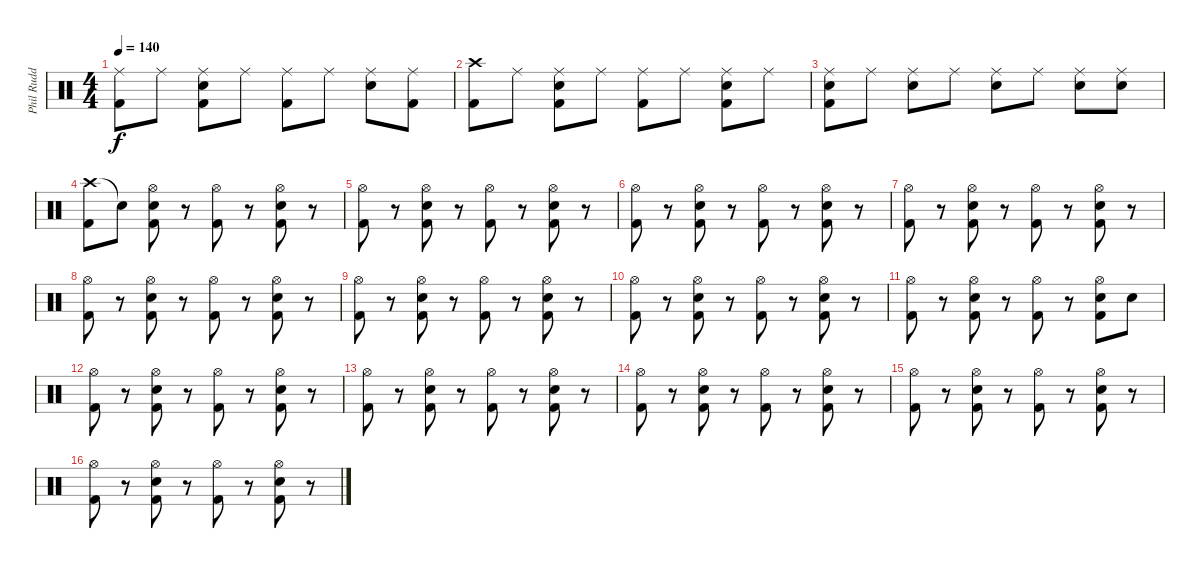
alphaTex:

\track ("Phil Rudd" "Phil Rudd") {instrument percussion}
\staff {score}
\articulation defaults
\ts (4 4)
\tempo 140
\clef neutral
\ks c
("Ride (middle)" "Kick (hit) 2").8{dy f} "Ride (middle)".8 ("Ride (middle)" "Electric Snare (hit)" "Kick (hit) 2").8 "Ride (middle)".8 ("Ride (middle)" "Kick (hit) 2").8 "Ride (middle)".8 ("Ride (middle)" "Electric Snare (hit)").8 ("Ride (middle)" "Kick (hit) 2").8 |
("Crash high (hit)" "Kick (hit) 2").8 "Ride (middle)".8 ("Ride (middle)" "Electric Snare (hit)" "Kick (hit) 2").8 "Ride (middle)".8 ("Ride (middle)" "Kick (hit) 2").8 "Ride (middle)".8 ("Ride (middle)" "Electric Snare (hit)" "Kick (hit) 2").8 "Ride (middle)".8 |
("Ride (middle)" "Electric Snare (hit)" "Kick (hit) 2").8 "Ride (middle)".8 ("Ride (middle)" "Electric Snare (hit)").8 "Ride (middle)".8 ("Ride (middle)" "Electric Snare (hit)").8 "Ride (middle)".8 ("Ride (middle)" "Electric Snare (hit)").8 ("Ride (middle)" "Electric Snare (hit)").8 |
("Crash high (hit)" "Kick (hit) 2").8 "Snare (hit)"{t}.8 ("Hi-Hat (open)" "Electric Snare (hit)" "Kick (hit) 2").8 r.8 ("Hi-Hat (open)" "Kick (hit) 2").8 r.8 ("Hi-Hat (open)" "Electric Snare (hit)" "Kick (hit) 2").8 r.8 |
("Hi-Hat (open)" "Kick (hit) 2").8 r.8 ("Hi-Hat (open)" "Electric Snare (hit)" "Kick (hit) 2").8 r.8 ("Hi-Hat (open)" "Kick (hit) 2").8 r.8 ("Hi-Hat (open)" "Electric Snare (hit)" "Kick (hit) 2").8 r.8 |
("Hi-Hat (open)" "Kick (hit) 2").8 r.8 ("Hi-Hat (open)" "Electric Snare (hit)" "Kick (hit) 2").8 r.8 ("Hi-Hat (open)" "Kick (hit) 2").8 r.8 ("Hi-Hat (open)" "Electric Snare (hit)" "Kick (hit) 2").8 r.8 |
("Hi-Hat (open)" "Kick (hit) 2").8 r.8 ("Hi-Hat (open)" "Electric Snare (hit)" "Kick (hit) 2").8 r.8 ("Hi-Hat (open)" "Kick (hit) 2").8 r.8 ("Hi-Hat (open)" "Electric Snare (hit)" "Kick (hit) 2").8 r.8 |
("Hi-Hat (open)" "Kick (hit) 2").8 r.8 ("Hi-Hat (open)" "Electric Snare (hit)" "Kick (hit) 2").8 r.8 ("Hi-Hat (open)" "Kick (hit) 2").8 r.8 ("Hi-Hat (open)" "Electric Snare (hit)" "Kick (hit) 2").8 r.8 |
("Hi-Hat (open)" "Kick (hit) 2").8 r.8 ("Hi-Hat (open)" "Electric Snare (hit)" "Kick (hit) 2").8 r.8 ("Hi-Hat (open)" "Kick (hit) 2").8 r.8 ("Hi-Hat (open)" "Electric Snare (hit)" "Kick (hit) 2").8 r.8 |
("Hi-Hat (open)" "Kick (hit) 2").8 r.8 ("Hi-Hat (open)" "Electric Snare (hit)" "Kick (hit) 2").8 r.8 ("Hi-Hat (open)" "Kick (hit) 2").8 r.8 ("Hi-Hat (open)" "Electric Snare (hit)" "Kick (hit) 2").8 r.8 |
("Hi-Hat (open)" "Kick (hit) 2").8 r.8 ("Hi-Hat (open)" "Electric Snare (hit)" "Kick (hit) 2").8 r.8 ("Hi-Hat (open)" "Kick (hit) 2").8 r.8 ("Hi-Hat (open)" "Electric Snare (hit)" "Kick (hit) 2").8 "Electric Snare (hit)".8 |
("Hi-Hat (open)" "Kick (hit) 2").8 r.8 ("Hi-Hat (open)" "Electric Snare (hit)" "Kick (hit) 2").8 r.8 ("Hi-Hat (open)" "Kick (hit) 2").8 r.8 ("Hi-Hat (open)" "Electric Snare (hit)" "Kick (hit) 2").8 r.8 |
("Hi-Hat (open)" "Kick (hit) 2").8 r.8 ("Hi-Hat (open)" "Electric Snare (hit)" "Kick (hit) 2").8 r.8 ("Hi-Hat (open)" "Kick (hit) 2").8 r.8 ("Hi-Hat (open)" "Electric Snare (hit)" "Kick (hit) 2").8 r.8 |
("Hi-Hat (open)" "Kick (hit) 2").8 r.8 ("Hi-Hat (open)" "Electric Snare (hit)" "Kick (hit) 2").8 r.8 ("Hi-Hat (open)" "Kick (hit) 2").8 r.8 ("Hi-Hat (open)" "Electric Snare (hit)" "Kick (hit) 2").8 r.8 |
("Hi-Hat (open)" "Kick (hit) 2").8 r.8 ("Hi-Hat (open)" "Electric Snare (hit)" "Kick (hit) 2").8 r.8 ("Hi-Hat (open)" "Kick (hit) 2").8 r.8 ("Hi-Hat (open)" "Electric Snare (hit)" "Kick (hit) 2").8 r.8 |
("Hi-Hat (open)" "Kick (hit) 2").8 r.8 ("Hi-Hat (open)" "Electric Snare (hit)" "Kick (hit) 2").8 r.8 ("Hi-Hat (open)" "Kick (hit) 2").8 r.8 ("Hi-Hat (open)" "Electric Snare (hit)" "Kick (hit) 2").8 r.8
